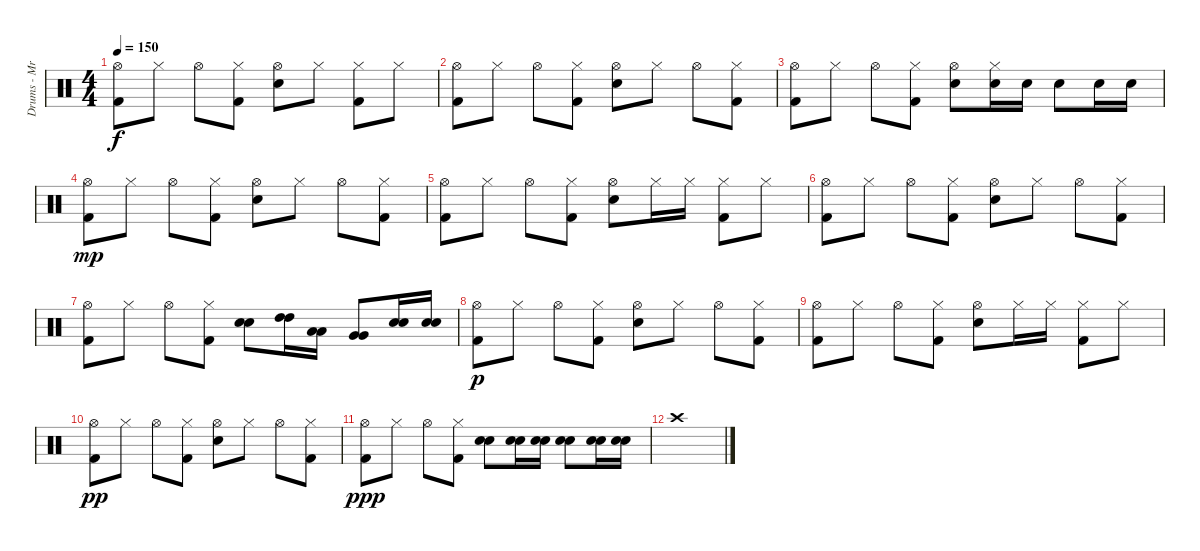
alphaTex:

\track ("Drums - Mr. Beller, Thomas" "Drums - Mr") {instrument percussion}
\staff {score}
\articulation defaults
\ts (4 4)
\tempo 150
\clef neutral
\ks c
("Hi-Hat (open)" "Kick (hit) 2").8{dy f} "Hi-Hat (closed)".8 "Hi-Hat (open)".8 ("Hi-Hat (closed)" "Kick (hit) 2").8 ("Hi-Hat (open)" "Electric Snare (hit)").8 "Hi-Hat (closed)".8 ("Hi-Hat (closed)" "Kick (hit) 2").8 "Hi-Hat (closed)".8 |
("Hi-Hat (open)" "Kick (hit) 2").8 "Hi-Hat (closed)".8 "Hi-Hat (open)".8 ("Hi-Hat (closed)" "Kick (hit) 2").8 ("Hi-Hat (open)" "Electric Snare (hit)").8 "Hi-Hat (closed)".8 "Hi-Hat (open)".8 ("Hi-Hat (closed)" "Kick (hit) 2").8 |
("Hi-Hat (open)" "Kick (hit) 2").8 "Hi-Hat (closed)".8 "Hi-Hat (open)".8 ("Hi-Hat (closed)" "Kick (hit) 2").8 ("Hi-Hat (open)" "Electric Snare (hit)").8 ("Hi-Hat (closed)" "Electric Snare (hit)").16 "Electric Snare (hit)".16 "Electric Snare (hit)".8 "Electric Snare (hit)".16 "Electric Snare (hit)".16 |
("Hi-Hat (open)" "Kick (hit) 2").8{dy mp} "Hi-Hat (closed)".8 "Hi-Hat (open)".8 ("Hi-Hat (closed)" "Kick (hit) 2").8 ("Hi-Hat (open)" "Electric Snare (hit)").8 "Hi-Hat (closed)".8 "Hi-Hat (open)".8 ("Hi-Hat (closed)" "Kick (hit) 2").8 |
("Hi-Hat (open)" "Kick (hit) 2").8 "Hi-Hat (closed)".8 "Hi-Hat (open)".8 ("Hi-Hat (closed)" "Kick (hit) 2").8 ("Hi-Hat (open)" "Electric Snare (hit)").8 "Hi-Hat (closed)".16 "Hi-Hat (closed)".16 ("Hi-Hat (closed)" "Kick (hit) 2").8 "Hi-Hat (closed)".8 |
("Hi-Hat (open)" "Kick (hit) 2").8 "Hi-Hat (closed)".8 "Hi-Hat (open)".8 ("Hi-Hat (closed)" "Kick (hit) 2").8 ("Hi-Hat (open)" "Electric Snare (hit)").8 "Hi-Hat (closed)".8 "Hi-Hat (open)".8 ("Hi-Hat (closed)" "Kick (hit) 2").8 |
("Hi-Hat (open)" "Kick (hit) 2").8 "Hi-Hat (closed)".8 "Hi-Hat (open)".8 ("Hi-Hat (closed)" "Kick (hit) 2").8 ("Electric Snare (hit)" "Electric Snare (hit)").8 ("High Tom (hit)" "High Tom (hit)").16 ("Low Tom (hit)" "Low Tom (hit)").16 ("Very Low Tom (hit)" "Very Low Tom (hit)").8 ("Electric Snare (hit)" "Electric Snare (hit)").16 ("Electric Snare (hit)" "Electric Snare (hit)").16 |
("Hi-Hat (open)" "Kick (hit) 2").8{dy p} "Hi-Hat (closed)".8 "Hi-Hat (open)".8 ("Hi-Hat (closed)" "Kick (hit) 2").8 ("Hi-Hat (open)" "Electric Snare (hit)").8 "Hi-Hat (closed)".8 "Hi-Hat (open)".8 ("Hi-Hat (closed)" "Kick (hit) 2").8 |
("Hi-Hat (open)" "Kick (hit) 2").8 "Hi-Hat (closed)".8 "Hi-Hat (open)".8 ("Hi-Hat (closed)" "Kick (hit) 2").8 ("Hi-Hat (open)" "Electric Snare (hit)").8 "Hi-Hat (closed)".16 "Hi-Hat (closed)".16 ("Hi-Hat (closed)" "Kick (hit) 2").8 "Hi-Hat (closed)".8 |
("Hi-Hat (open)" "Kick (hit) 2").8{dy pp} "Hi-Hat (closed)".8 "Hi-Hat (open)".8 ("Hi-Hat (closed)" "Kick (hit) 2").8 ("Hi-Hat (open)" "Electric Snare (hit)").8 "Hi-Hat (closed)".8 "Hi-Hat (open)".8 ("Hi-Hat (closed)" "Kick (hit) 2").8 |
("Hi-Hat (open)" "Kick (hit) 2").8{dy ppp} "Hi-Hat (closed)".8 "Hi-Hat (open)".8 ("Hi-Hat (closed)" "Kick (hit) 2").8 ("Electric Snare (hit)" "Electric Snare (hit)").8 ("Electric Snare (hit)" "Electric Snare (hit)").16 ("Electric Snare (hit)" "Electric Snare (hit)").16 ("Electric Snare (hit)" "Electric Snare (hit)").8 ("Electric Snare (hit)" "Electric Snare (hit)").16 ("Electric Snare (hit)" "Electric Snare (hit)").16 |
"Crash high (hit)".1
